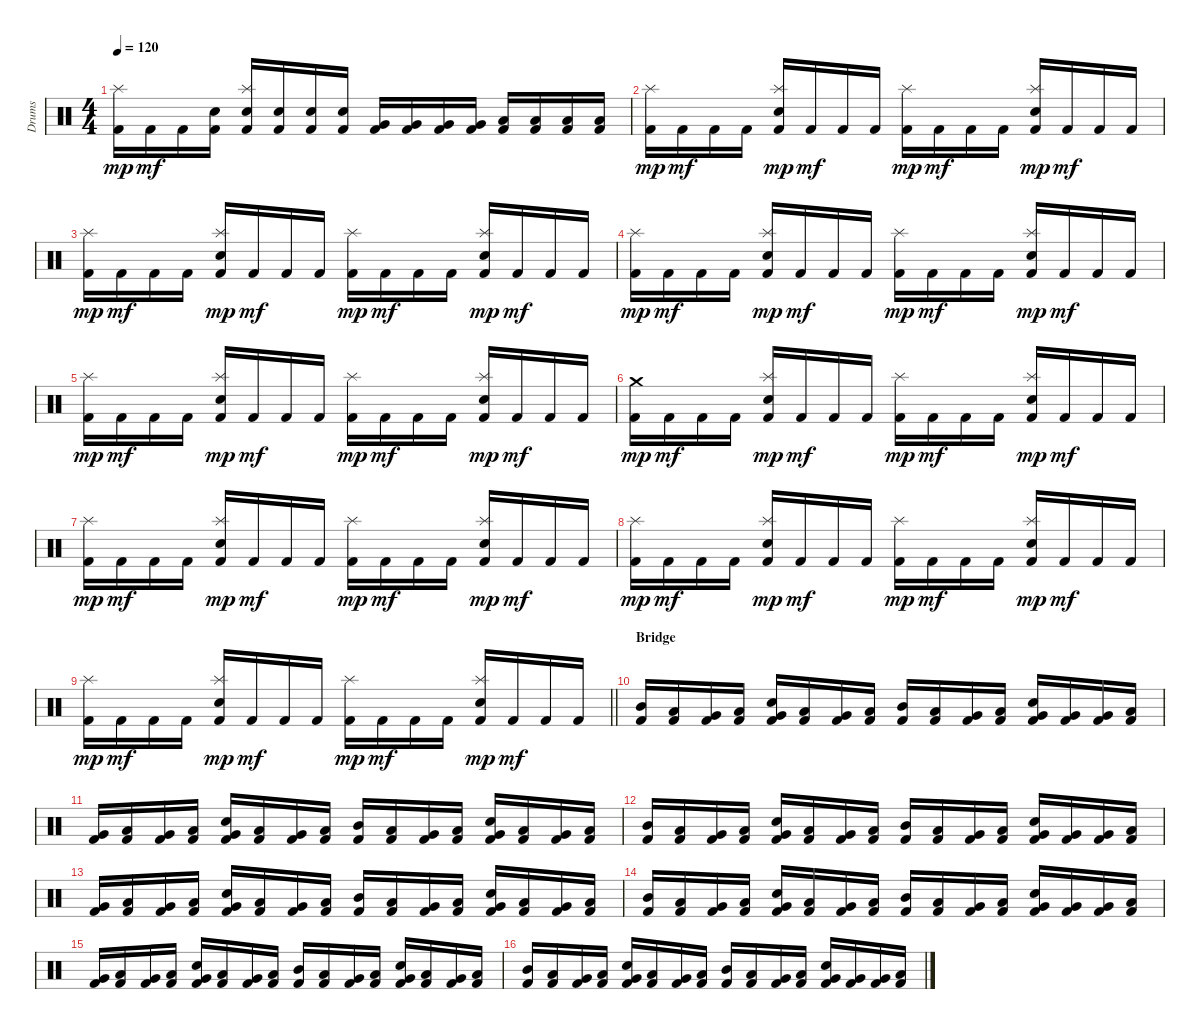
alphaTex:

\track ("Drums" "Drums") {instrument percussion}
\staff {score}
\articulation defaults
\ts (4 4)
\tempo 120
\clef neutral
\ks c
("Kick (hit) 2" "Splash (hit)").16{dy mp} "Kick (hit) 2".16{dy mf} "Kick (hit) 2".16 ("Kick (hit) 2" "Snare (hit) 2").16 ("Kick (hit) 2" "Splash (hit)" "Snare (hit) 2").16 ("Kick (hit) 2" "Snare (hit) 2").16 ("Kick (hit) 2" "Snare (hit) 2").16 ("Kick (hit) 2" "Snare (hit) 2").16 ("Kick (hit) 2" "Very Low Tom (hit)").16 ("Kick (hit) 2" "Very Low Tom (hit)").16 ("Kick (hit) 2" "Very Low Tom (hit)").16 ("Kick (hit) 2" "Very Low Tom (hit)").16 ("Kick (hit) 2" "Low Floor Tom (hit)").16 ("Kick (hit) 2" "Low Floor Tom (hit)").16 ("Kick (hit) 2" "Low Floor Tom (hit)").16 ("Kick (hit) 2" "Low Floor Tom (hit)").16 |
("Kick (hit) 2" "Splash (hit)").16{dy mp} "Kick (hit) 2".16{dy mf} "Kick (hit) 2".16 "Kick (hit) 2".16 ("Kick (hit) 2" "Splash (hit)" "Snare (hit) 2").16{dy mp} "Kick (hit) 2".16{dy mf} "Kick (hit) 2".16 "Kick (hit) 2".16 ("Kick (hit) 2" "Splash (hit)").16{dy mp} "Kick (hit) 2".16{dy mf} "Kick (hit) 2".16 "Kick (hit) 2".16 ("Kick (hit) 2" "Splash (hit)" "Snare (hit) 2").16{dy mp} "Kick (hit) 2".16{dy mf} "Kick (hit) 2".16 "Kick (hit) 2".16 |
("Kick (hit) 2" "Splash (hit)").16{dy mp} "Kick (hit) 2".16{dy mf} "Kick (hit) 2".16 "Kick (hit) 2".16 ("Kick (hit) 2" "Splash (hit)" "Snare (hit) 2").16{dy mp} "Kick (hit) 2".16{dy mf} "Kick (hit) 2".16 "Kick (hit) 2".16 ("Kick (hit) 2" "Splash (hit)").16{dy mp} "Kick (hit) 2".16{dy mf} "Kick (hit) 2".16 "Kick (hit) 2".16 ("Kick (hit) 2" "Splash (hit)" "Snare (hit) 2").16{dy mp} "Kick (hit) 2".16{dy mf} "Kick (hit) 2".16 "Kick (hit) 2".16 |
("Kick (hit) 2" "Splash (hit)").16{dy mp} "Kick (hit) 2".16{dy mf} "Kick (hit) 2".16 "Kick (hit) 2".16 ("Kick (hit) 2" "Splash (hit)" "Snare (hit) 2").16{dy mp} "Kick (hit) 2".16{dy mf} "Kick (hit) 2".16 "Kick (hit) 2".16 ("Kick (hit) 2" "Splash (hit)").16{dy mp} "Kick (hit) 2".16{dy mf} "Kick (hit) 2".16 "Kick (hit) 2".16 ("Kick (hit) 2" "Splash (hit)" "Snare (hit) 2").16{dy mp} "Kick (hit) 2".16{dy mf} "Kick (hit) 2".16 "Kick (hit) 2".16 |
("Kick (hit) 2" "Splash (hit)").16{dy mp} "Kick (hit) 2".16{dy mf} "Kick (hit) 2".16 "Kick (hit) 2".16 ("Kick (hit) 2" "Splash (hit)" "Snare (hit) 2").16{dy mp} "Kick (hit) 2".16{dy mf} "Kick (hit) 2".16 "Kick (hit) 2".16 ("Kick (hit) 2" "Splash (hit)").16{dy mp} "Kick (hit) 2".16{dy mf} "Kick (hit) 2".16 "Kick (hit) 2".16 ("Kick (hit) 2" "Splash (hit)" "Snare (hit) 2").16{dy mp} "Kick (hit) 2".16{dy mf} "Kick (hit) 2".16 "Kick (hit) 2".16 |
("Kick (hit) 2" "Crash medium (hit)").16{dy mp} "Kick (hit) 2".16{dy mf} "Kick (hit) 2".16 "Kick (hit) 2".16 ("Kick (hit) 2" "Splash (hit)" "Snare (hit) 2").16{dy mp} "Kick (hit) 2".16{dy mf} "Kick (hit) 2".16 "Kick (hit) 2".16 ("Kick (hit) 2" "Splash (hit)").16{dy mp} "Kick (hit) 2".16{dy mf} "Kick (hit) 2".16 "Kick (hit) 2".16 ("Kick (hit) 2" "Splash (hit)" "Snare (hit) 2").16{dy mp} "Kick (hit) 2".16{dy mf} "Kick (hit) 2".16 "Kick (hit) 2".16 |
("Kick (hit) 2" "Splash (hit)").16{dy mp} "Kick (hit) 2".16{dy mf} "Kick (hit) 2".16 "Kick (hit) 2".16 ("Kick (hit) 2" "Splash (hit)" "Snare (hit) 2").16{dy mp} "Kick (hit) 2".16{dy mf} "Kick (hit) 2".16 "Kick (hit) 2".16 ("Kick (hit) 2" "Splash (hit)").16{dy mp} "Kick (hit) 2".16{dy mf} "Kick (hit) 2".16 "Kick (hit) 2".16 ("Kick (hit) 2" "Splash (hit)" "Snare (hit) 2").16{dy mp} "Kick (hit) 2".16{dy mf} "Kick (hit) 2".16 "Kick (hit) 2".16 |
("Kick (hit) 2" "Splash (hit)").16{dy mp} "Kick (hit) 2".16{dy mf} "Kick (hit) 2".16 "Kick (hit) 2".16 ("Kick (hit) 2" "Splash (hit)" "Snare (hit) 2").16{dy mp} "Kick (hit) 2".16{dy mf} "Kick (hit) 2".16 "Kick (hit) 2".16 ("Kick (hit) 2" "Splash (hit)").16{dy mp} "Kick (hit) 2".16{dy mf} "Kick (hit) 2".16 "Kick (hit) 2".16 ("Kick (hit) 2" "Splash (hit)" "Snare (hit) 2").16{dy mp} "Kick (hit) 2".16{dy mf} "Kick (hit) 2".16 "Kick (hit) 2".16 |
\barLineRight lightlight
("Kick (hit) 2" "Splash (hit)").16{dy mp} "Kick (hit) 2".16{dy mf} "Kick (hit) 2".16 "Kick (hit) 2".16 ("Kick (hit) 2" "Splash (hit)" "Snare (hit) 2").16{dy mp} "Kick (hit) 2".16{dy mf} "Kick (hit) 2".16 "Kick (hit) 2".16 ("Kick (hit) 2" "Splash (hit)").16{dy mp} "Kick (hit) 2".16{dy mf} "Kick (hit) 2".16 "Kick (hit) 2".16 ("Kick (hit) 2" "Splash (hit)" "Snare (hit) 2").16{dy mp} "Kick (hit) 2".16{dy mf} "Kick (hit) 2".16 "Kick (hit) 2".16 |
\section ("" "Bridge")
("Kick (hit) 2" "Mid Tom (hit)").16 ("Kick (hit) 2" "Low Tom (hit)").16 ("Kick (hit) 2" "Very Low Tom (hit)").16 ("Kick (hit) 2" "Low Floor Tom (hit)").16 ("Kick (hit) 2" "Very Low Tom (hit)" "Snare (hit) 2").16 ("Kick (hit) 2" "Low Tom (hit)").16 ("Kick (hit) 2" "Very Low Tom (hit)").16 ("Kick (hit) 2" "Low Tom (hit)").16 ("Kick (hit) 2" "Mid Tom (hit)").16 ("Kick (hit) 2" "Low Tom (hit)").16 ("Kick (hit) 2" "Very Low Tom (hit)").16 ("Kick (hit) 2" "Low Floor Tom (hit)").16 ("Kick (hit) 2" "Very Low Tom (hit)" "Snare (hit) 2").16 ("Kick (hit) 2" "Very Low Tom (hit)").16 ("Kick (hit) 2" "Very Low Tom (hit)").16 ("Kick (hit) 2" "Low Tom (hit)").16 |
("Kick (hit) 2" "Very Low Tom (hit)").16 ("Kick (hit) 2" "Low Tom (hit)").16 ("Kick (hit) 2" "Very Low Tom (hit)").16 ("Kick (hit) 2" "Low Floor Tom (hit)").16 ("Kick (hit) 2" "Very Low Tom (hit)" "Snare (hit) 2").16 ("Kick (hit) 2" "Low Tom (hit)").16 ("Kick (hit) 2" "Very Low Tom (hit)").16 ("Kick (hit) 2" "Low Tom (hit)").16 ("Kick (hit) 2" "Mid Tom (hit)").16 ("Kick (hit) 2" "Low Tom (hit)").16 ("Kick (hit) 2" "Very Low Tom (hit)").16 ("Kick (hit) 2" "Low Floor Tom (hit)").16 ("Kick (hit) 2" "Very Low Tom (hit)" "Snare (hit) 2").16 ("Kick (hit) 2" "Low Tom (hit)").16 ("Kick (hit) 2" "Very Low Tom (hit)").16 ("Kick (hit) 2" "Low Tom (hit)").16 |
("Kick (hit) 2" "Mid Tom (hit)").16 ("Kick (hit) 2" "Low Tom (hit)").16 ("Kick (hit) 2" "Very Low Tom (hit)").16 ("Kick (hit) 2" "Low Floor Tom (hit)").16 ("Kick (hit) 2" "Very Low Tom (hit)" "Snare (hit) 2").16 ("Kick (hit) 2" "Low Tom (hit)").16 ("Kick (hit) 2" "Very Low Tom (hit)").16 ("Kick (hit) 2" "Low Tom (hit)").16 ("Kick (hit) 2" "Mid Tom (hit)").16 ("Kick (hit) 2" "Low Tom (hit)").16 ("Kick (hit) 2" "Very Low Tom (hit)").16 ("Kick (hit) 2" "Low Floor Tom (hit)").16 ("Kick (hit) 2" "Very Low Tom (hit)" "Snare (hit) 2").16 ("Kick (hit) 2" "Very Low Tom (hit)").16 ("Kick (hit) 2" "Very Low Tom (hit)").16 ("Kick (hit) 2" "Low Tom (hit)").16 |
("Kick (hit) 2" "Very Low Tom (hit)").16 ("Kick (hit) 2" "Low Tom (hit)").16 ("Kick (hit) 2" "Very Low Tom (hit)").16 ("Kick (hit) 2" "Low Floor Tom (hit)").16 ("Kick (hit) 2" "Very Low Tom (hit)" "Snare (hit) 2").16 ("Kick (hit) 2" "Low Tom (hit)").16 ("Kick (hit) 2" "Very Low Tom (hit)").16 ("Kick (hit) 2" "Low Tom (hit)").16 ("Kick (hit) 2" "Mid Tom (hit)").16 ("Kick (hit) 2" "Low Tom (hit)").16 ("Kick (hit) 2" "Very Low Tom (hit)").16 ("Kick (hit) 2" "Low Floor Tom (hit)").16 ("Kick (hit) 2" "Very Low Tom (hit)" "Snare (hit) 2").16 ("Kick (hit) 2" "Low Tom (hit)").16 ("Kick (hit) 2" "Very Low Tom (hit)").16 ("Kick (hit) 2" "Low Tom (hit)").16 |
("Kick (hit) 2" "Mid Tom (hit)").16 ("Kick (hit) 2" "Low Tom (hit)").16 ("Kick (hit) 2" "Very Low Tom (hit)").16 ("Kick (hit) 2" "Low Floor Tom (hit)").16 ("Kick (hit) 2" "Very Low Tom (hit)" "Snare (hit) 2").16 ("Kick (hit) 2" "Low Tom (hit)").16 ("Kick (hit) 2" "Very Low Tom (hit)").16 ("Kick (hit) 2" "Low Tom (hit)").16 ("Kick (hit) 2" "Mid Tom (hit)").16 ("Kick (hit) 2" "Low Tom (hit)").16 ("Kick (hit) 2" "Very Low Tom (hit)").16 ("Kick (hit) 2" "Low Floor Tom (hit)").16 ("Kick (hit) 2" "Very Low Tom (hit)" "Snare (hit) 2").16 ("Kick (hit) 2" "Very Low Tom (hit)").16 ("Kick (hit) 2" "Very Low Tom (hit)").16 ("Kick (hit) 2" "Low Tom (hit)").16 |
("Kick (hit) 2" "Very Low Tom (hit)").16 ("Kick (hit) 2" "Low Tom (hit)").16 ("Kick (hit) 2" "Very Low Tom (hit)").16 ("Kick (hit) 2" "Low Floor Tom (hit)").16 ("Kick (hit) 2" "Very Low Tom (hit)" "Snare (hit) 2").16 ("Kick (hit) 2" "Low Tom (hit)").16 ("Kick (hit) 2" "Very Low Tom (hit)").16 ("Kick (hit) 2" "Low Tom (hit)").16 ("Kick (hit) 2" "Mid Tom (hit)").16 ("Kick (hit) 2" "Low Tom (hit)").16 ("Kick (hit) 2" "Very Low Tom (hit)").16 ("Kick (hit) 2" "Low Floor Tom (hit)").16 ("Kick (hit) 2" "Very Low Tom (hit)" "Snare (hit) 2").16 ("Kick (hit) 2" "Low Tom (hit)").16 ("Kick (hit) 2" "Very Low Tom (hit)").16 ("Kick (hit) 2" "Low Tom (hit)").16 |
("Kick (hit) 2" "Mid Tom (hit)").16 ("Kick (hit) 2" "Low Tom (hit)").16 ("Kick (hit) 2" "Very Low Tom (hit)").16 ("Kick (hit) 2" "Low Floor Tom (hit)").16 ("Kick (hit) 2" "Very Low Tom (hit)" "Snare (hit) 2").16 ("Kick (hit) 2" "Low Tom (hit)").16 ("Kick (hit) 2" "Very Low Tom (hit)").16 ("Kick (hit) 2" "Low Tom (hit)").16 ("Kick (hit) 2" "Mid Tom (hit)").16 ("Kick (hit) 2" "Low Tom (hit)").16 ("Kick (hit) 2" "Very Low Tom (hit)").16 ("Kick (hit) 2" "Low Floor Tom (hit)").16 ("Kick (hit) 2" "Very Low Tom (hit)" "Snare (hit) 2").16 ("Kick (hit) 2" "Very Low Tom (hit)").16 ("Kick (hit) 2" "Very Low Tom (hit)").16 ("Kick (hit) 2" "Low Tom (hit)").16
